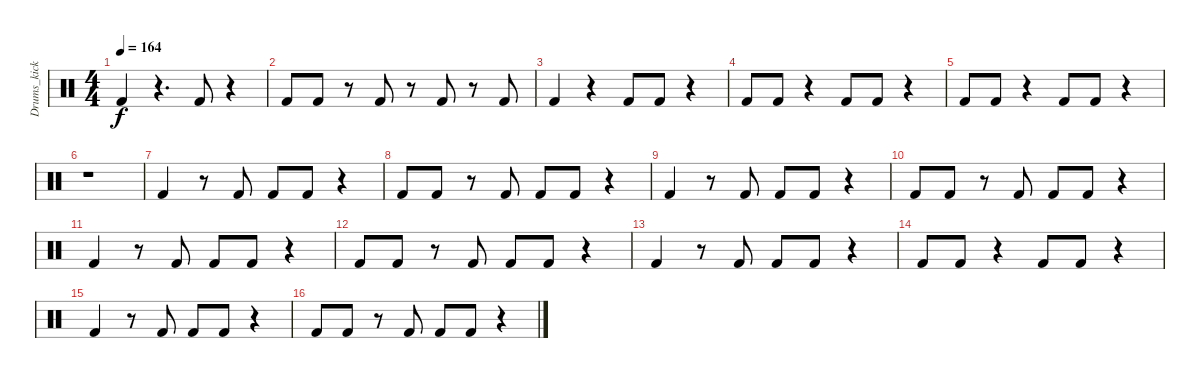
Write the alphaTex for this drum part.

\track ("Drums_kick" "Drums_kick") {instrument percussion}
\staff {score}
\articulation defaults
\ts (4 4)
\tempo 164
\clef neutral
\ks c "Kick (hit) 2".4{dy f}
r.4{d} "Kick (hit) 2".8 r.4 |
"Kick (hit) 2".8 "Kick (hit) 2".8 r.8 "Kick (hit) 2".8 r.8 "Kick (hit) 2".8 r.8 "Kick (hit) 2".8 |
"Kick (hit) 2".4 r.4 "Kick (hit) 2".8 "Kick (hit) 2".8 r.4 |
"Kick (hit) 2".8 "Kick (hit) 2".8 r.4 "Kick (hit) 2".8 "Kick (hit) 2".8 r.4 |
"Kick (hit) 2".8 "Kick (hit) 2".8 r.4 "Kick (hit) 2".8 "Kick (hit) 2".8 r.4 |
r.1 |
"Kick (hit) 2".4 r.8 "Kick (hit) 2".8 "Kick (hit) 2".8 "Kick (hit) 2".8 r.4 |
"Kick (hit) 2".8 "Kick (hit) 2".8 r.8 "Kick (hit) 2".8 "Kick (hit) 2".8 "Kick (hit) 2".8 r.4 |
"Kick (hit) 2".4 r.8 "Kick (hit) 2".8 "Kick (hit) 2".8 "Kick (hit) 2".8 r.4 |
"Kick (hit) 2".8 "Kick (hit) 2".8 r.8 "Kick (hit) 2".8 "Kick (hit) 2".8 "Kick (hit) 2".8 r.4 |
"Kick (hit) 2".4 r.8 "Kick (hit) 2".8 "Kick (hit) 2".8 "Kick (hit) 2".8 r.4 |
"Kick (hit) 2".8 "Kick (hit) 2".8 r.8 "Kick (hit) 2".8 "Kick (hit) 2".8 "Kick (hit) 2".8 r.4 |
"Kick (hit) 2".4 r.8 "Kick (hit) 2".8 "Kick (hit) 2".8 "Kick (hit) 2".8 r.4 |
"Kick (hit) 2".8 "Kick (hit) 2".8 r.4 "Kick (hit) 2".8 "Kick (hit) 2".8 r.4 |
"Kick (hit) 2".4 r.8 "Kick (hit) 2".8 "Kick (hit) 2".8 "Kick (hit) 2".8 r.4 |
"Kick (hit) 2".8 "Kick (hit) 2".8 r.8 "Kick (hit) 2".8 "Kick (hit) 2".8 "Kick (hit) 2".8 r.4
